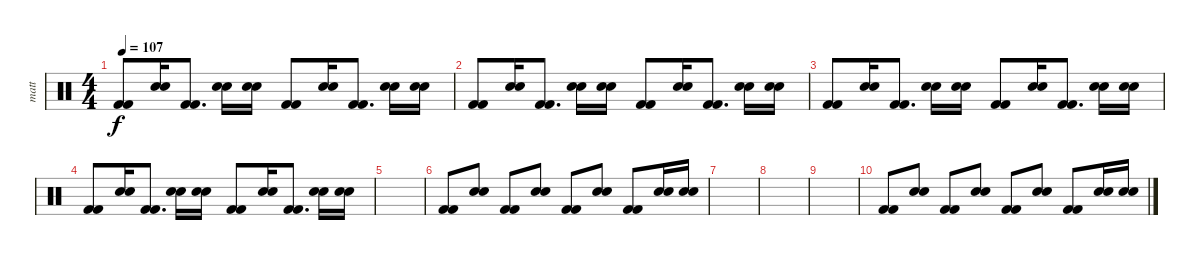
\track ("matt" "matt") {instrument percussion}
\staff {score}
\articulation defaults
\ts (4 4)
\tempo 107
\clef neutral
\ks c
("Kick (hit) 2" "Kick (hit) 2").8{dy f} ("Snare (hit) 2" "Snare (hit) 2").16 ("Kick (hit) 2" "Kick (hit) 2").8{d} ("Snare (hit) 2" "Snare (hit) 2").16 ("Snare (hit) 2" "Snare (hit) 2").16 ("Kick (hit) 2" "Kick (hit) 2").8 ("Snare (hit) 2" "Snare (hit) 2").16 ("Kick (hit) 2" "Kick (hit) 2").8{d} ("Snare (hit) 2" "Snare (hit) 2").16 ("Snare (hit) 2" "Snare (hit) 2").16 |
("Kick (hit) 2" "Kick (hit) 2").8 ("Snare (hit) 2" "Snare (hit) 2").16 ("Kick (hit) 2" "Kick (hit) 2").8{d} ("Snare (hit) 2" "Snare (hit) 2").16 ("Snare (hit) 2" "Snare (hit) 2").16 ("Kick (hit) 2" "Kick (hit) 2").8 ("Snare (hit) 2" "Snare (hit) 2").16 ("Kick (hit) 2" "Kick (hit) 2").8{d} ("Snare (hit) 2" "Snare (hit) 2").16 ("Snare (hit) 2" "Snare (hit) 2").16 |
("Kick (hit) 2" "Kick (hit) 2").8 ("Snare (hit) 2" "Snare (hit) 2").16 ("Kick (hit) 2" "Kick (hit) 2").8{d} ("Snare (hit) 2" "Snare (hit) 2").16 ("Snare (hit) 2" "Snare (hit) 2").16 ("Kick (hit) 2" "Kick (hit) 2").8 ("Snare (hit) 2" "Snare (hit) 2").16 ("Kick (hit) 2" "Kick (hit) 2").8{d} ("Snare (hit) 2" "Snare (hit) 2").16 ("Snare (hit) 2" "Snare (hit) 2").16 |
("Kick (hit) 2" "Kick (hit) 2").8 ("Snare (hit) 2" "Snare (hit) 2").16 ("Kick (hit) 2" "Kick (hit) 2").8{d} ("Snare (hit) 2" "Snare (hit) 2").16 ("Snare (hit) 2" "Snare (hit) 2").16 ("Kick (hit) 2" "Kick (hit) 2").8 ("Snare (hit) 2" "Snare (hit) 2").16 ("Kick (hit) 2" "Kick (hit) 2").8{d} ("Snare (hit) 2" "Snare (hit) 2").16 ("Snare (hit) 2" "Snare (hit) 2").16 |
|
("Kick (hit) 2" "Kick (hit) 2").8 ("Snare (hit) 2" "Snare (hit) 2").8 ("Kick (hit) 2" "Kick (hit) 2").8 ("Snare (hit) 2" "Snare (hit) 2").8 ("Kick (hit) 2" "Kick (hit) 2").8 ("Snare (hit) 2" "Snare (hit) 2").8 ("Kick (hit) 2" "Kick (hit) 2").8 ("Snare (hit) 2" "Snare (hit) 2").16 ("Snare (hit) 2" "Snare (hit) 2").16 |
|
|
|
("Kick (hit) 2" "Kick (hit) 2").8 ("Snare (hit) 2" "Snare (hit) 2").8 ("Kick (hit) 2" "Kick (hit) 2").8 ("Snare (hit) 2" "Snare (hit) 2").8 ("Kick (hit) 2" "Kick (hit) 2").8 ("Snare (hit) 2" "Snare (hit) 2").8 ("Kick (hit) 2" "Kick (hit) 2").8 ("Snare (hit) 2" "Snare (hit) 2").16 ("Snare (hit) 2" "Snare (hit) 2").16
